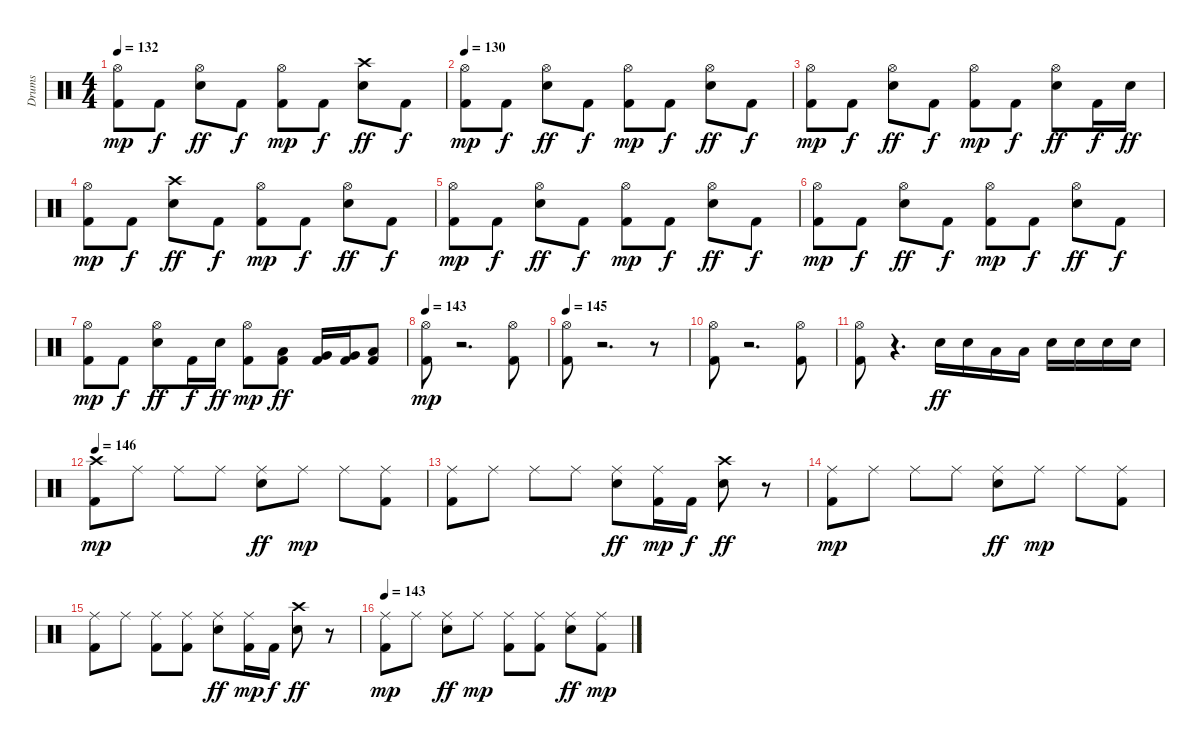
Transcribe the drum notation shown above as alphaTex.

\track ("Drums" "Drums") {instrument percussion}
\staff {score}
\articulation defaults
\ts (4 4)
\tempo 132
\clef neutral
\ks c
("Hi-Hat (open)" "Kick (hit) 2").8{dy mp} "Kick (hit) 2".8{dy f} ("Hi-Hat (open)" "Electric Snare (hit)").8{dy ff} "Kick (hit) 2".8{dy f} ("Hi-Hat (open)" "Kick (hit) 2").8{dy mp} "Kick (hit) 2".8{dy f} ("Crash high (hit)" "Electric Snare (hit)").8{dy ff} "Kick (hit) 2".8{dy f} |
\tempo 130
("Hi-Hat (open)" "Kick (hit) 2").8{dy mp} "Kick (hit) 2".8{dy f} ("Hi-Hat (open)" "Electric Snare (hit)").8{dy ff} "Kick (hit) 2".8{dy f} ("Hi-Hat (open)" "Kick (hit) 2").8{dy mp} "Kick (hit) 2".8{dy f} ("Hi-Hat (open)" "Electric Snare (hit)").8{dy ff} "Kick (hit) 2".8{dy f} |
("Hi-Hat (open)" "Kick (hit) 2").8{dy mp} "Kick (hit) 2".8{dy f} ("Hi-Hat (open)" "Electric Snare (hit)").8{dy ff} "Kick (hit) 2".8{dy f} ("Hi-Hat (open)" "Kick (hit) 2").8{dy mp} "Kick (hit) 2".8{dy f} ("Hi-Hat (open)" "Electric Snare (hit)").8{dy ff} "Kick (hit) 2".16{dy f} "Electric Snare (hit)".16{dy ff} |
("Hi-Hat (open)" "Kick (hit) 2").8{dy mp} "Kick (hit) 2".8{dy f} ("Crash high (hit)" "Electric Snare (hit)").8{dy ff} "Kick (hit) 2".8{dy f} ("Hi-Hat (open)" "Kick (hit) 2").8{dy mp} "Kick (hit) 2".8{dy f} ("Hi-Hat (open)" "Electric Snare (hit)").8{dy ff} "Kick (hit) 2".8{dy f} |
("Hi-Hat (open)" "Kick (hit) 2").8{dy mp} "Kick (hit) 2".8{dy f} ("Hi-Hat (open)" "Electric Snare (hit)").8{dy ff} "Kick (hit) 2".8{dy f} ("Hi-Hat (open)" "Kick (hit) 2").8{dy mp} "Kick (hit) 2".8{dy f} ("Hi-Hat (open)" "Electric Snare (hit)").8{dy ff} "Kick (hit) 2".8{dy f} |
("Hi-Hat (open)" "Kick (hit) 2").8{dy mp} "Kick (hit) 2".8{dy f} ("Hi-Hat (open)" "Electric Snare (hit)").8{dy ff} "Kick (hit) 2".8{dy f} ("Hi-Hat (open)" "Kick (hit) 2").8{dy mp} "Kick (hit) 2".8{dy f} ("Hi-Hat (open)" "Electric Snare (hit)").8{dy ff} "Kick (hit) 2".8{dy f} |
("Hi-Hat (open)" "Kick (hit) 2").8{dy mp} "Kick (hit) 2".8{dy f} ("Hi-Hat (open)" "Electric Snare (hit)").8{dy ff} "Kick (hit) 2".16{dy f} "Electric Snare (hit)".16{dy ff} ("Hi-Hat (open)" "Kick (hit) 2").8{dy mp} ("Low Tom (hit)" "Kick (hit) 2").8{dy ff} ("Very Low Tom (hit)" "Kick (hit) 2").16 ("Very Low Tom (hit)" "Kick (hit) 2").16 ("Low Floor Tom (hit)" "Kick (hit) 2").8 |
\tempo 143
("Hi-Hat (open)" "Kick (hit) 2").8{dy mp} r.2{d volume 0} ("Hi-Hat (open)" "Kick (hit) 2").8{volume 16} |
\tempo 145
("Hi-Hat (open)" "Kick (hit) 2").8 r.2{d volume 0} r.8 |
("Hi-Hat (open)" "Kick (hit) 2").8{volume 16} r.2{d volume 0} ("Hi-Hat (open)" "Kick (hit) 2").8{volume 16} |
("Hi-Hat (open)" "Kick (hit) 2").8 r.4{d volume 0} "Electric Snare (hit)".16{dy ff volume 16} "Electric Snare (hit)".16 "Low Floor Tom (hit)".16 "Low Floor Tom (hit)".16 "Electric Snare (hit)".16 "Electric Snare (hit)".16 "Electric Snare (hit)".16 "Electric Snare (hit)".16 |
\tempo 146
("Crash high (hit)" "Kick (hit) 2").8{dy mp} "Ride (middle)".8 "Ride (middle)".8 "Ride (middle)".8 ("Ride (middle)" "Electric Snare (hit)").8{dy ff} "Ride (middle)".8{dy mp} "Ride (middle)".8 ("Ride (middle)" "Kick (hit) 2").8 |
("Ride (middle)" "Kick (hit) 2").8 "Ride (middle)".8 "Ride (middle)".8 "Ride (middle)".8 ("Ride (middle)" "Electric Snare (hit)").8{dy ff} ("Ride (middle)" "Kick (hit) 2").16{dy mp} "Kick (hit) 2".16{dy f} ("Crash high (hit)" "Electric Snare (hit)").8{dy ff} r.8 |
("Ride (middle)" "Kick (hit) 2").8{dy mp} "Ride (middle)".8 "Ride (middle)".8 "Ride (middle)".8 ("Ride (middle)" "Electric Snare (hit)").8{dy ff} "Ride (middle)".8{dy mp} "Ride (middle)".8 ("Ride (middle)" "Kick (hit) 2").8 |
("Ride (middle)" "Kick (hit) 2").8 "Ride (middle)".8 ("Ride (middle)" "Kick (hit) 2").8 ("Ride (middle)" "Kick (hit) 2").8 ("Ride (middle)" "Electric Snare (hit)").8{dy ff} ("Ride (middle)" "Kick (hit) 2").16{dy mp} "Kick (hit) 2".16{dy f} ("Crash high (hit)" "Electric Snare (hit)").8{dy ff} r.8 |
\tempo 143
("Ride (middle)" "Kick (hit) 2").8{dy mp} "Ride (middle)".8 ("Ride (middle)" "Electric Snare (hit)").8{dy ff} "Ride (middle)".8{dy mp} ("Ride (middle)" "Kick (hit) 2").8 ("Ride (middle)" "Kick (hit) 2").8 ("Ride (middle)" "Electric Snare (hit)").8{dy ff} ("Ride (middle)" "Kick (hit) 2").8{dy mp}
